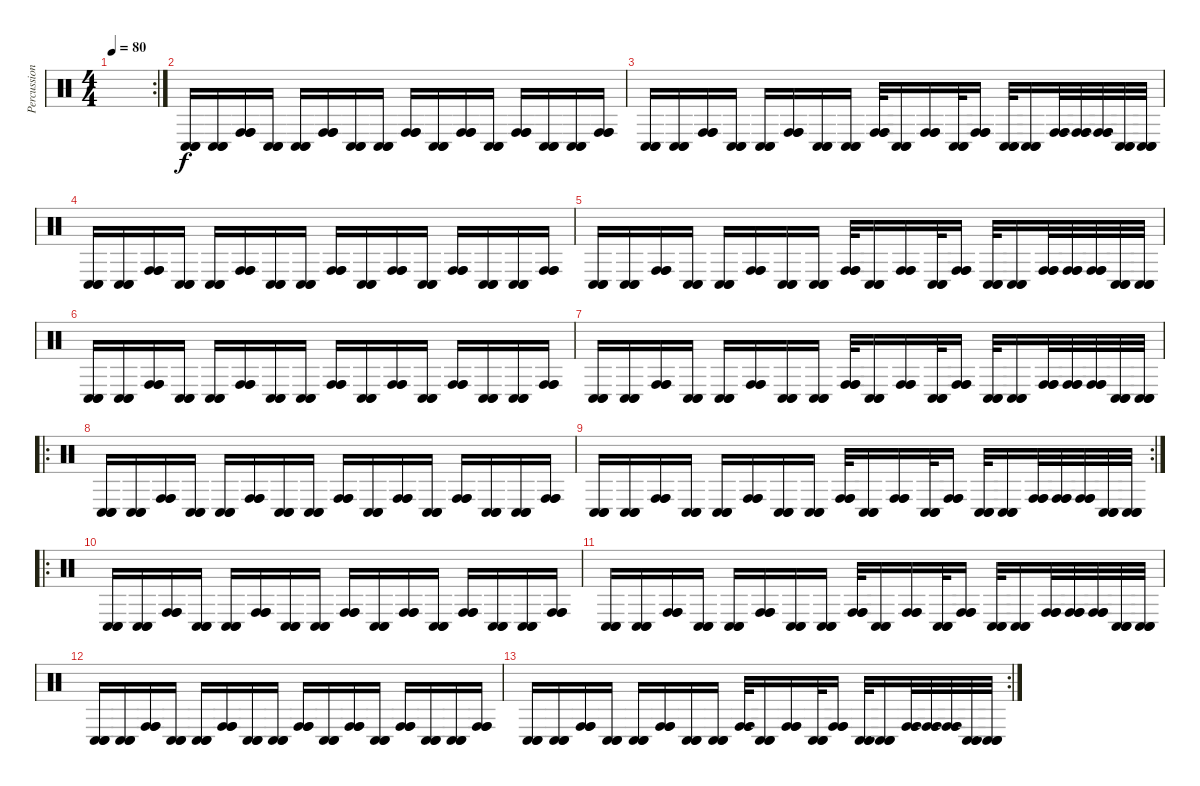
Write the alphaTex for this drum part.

\track ("Percussion" "Percussion") {instrument percussion}
\staff {score}
\articulation defaults
\rc 2
\ts (4 4)
\tempo 80
\clef neutral
\ks c
|
("Conga low (hit)" "Conga low (hit)" "Conga low (hit)").16 ("Conga low (hit)" "Conga low (hit)" "Conga low (hit)").16 ("Conga high (hit)" "Conga high (hit)" "Conga high (hit)").16 ("Conga low (hit)" "Conga low (hit)" "Conga low (hit)").16 ("Conga low (hit)" "Conga low (hit)" "Conga low (hit)").16 ("Conga high (hit)" "Conga high (hit)" "Conga high (hit)").16 ("Conga low (hit)" "Conga low (hit)" "Conga low (hit)").16 ("Conga low (hit)" "Conga low (hit)" "Conga low (hit)").16 ("Conga high (hit)" "Conga high (hit)" "Conga high (hit)").16 ("Conga low (hit)" "Conga low (hit)" "Conga low (hit)").16 ("Conga high (hit)" "Conga high (hit)" "Conga high (hit)").16 ("Conga low (hit)" "Conga low (hit)" "Conga low (hit)").16 ("Conga high (hit)" "Conga high (hit)" "Conga high (hit)").16 ("Conga low (hit)" "Conga low (hit)" "Conga low (hit)").16 ("Conga low (hit)" "Conga low (hit)" "Conga low (hit)").16 ("Conga high (hit)" "Conga high (hit)" "Conga high (hit)").16 |
("Conga low (hit)" "Conga low (hit)" "Conga low (hit)").16 ("Conga low (hit)" "Conga low (hit)" "Conga low (hit)").16 ("Conga high (hit)" "Conga high (hit)" "Conga high (hit)").16 ("Conga low (hit)" "Conga low (hit)" "Conga low (hit)").16 ("Conga low (hit)" "Conga low (hit)" "Conga low (hit)").16 ("Conga high (hit)" "Conga high (hit)" "Conga high (hit)").16 ("Conga low (hit)" "Conga low (hit)" "Conga low (hit)").16 ("Conga low (hit)" "Conga low (hit)" "Conga low (hit)").16 ("Conga high (hit)" "Conga high (hit)" "Conga high (hit)").32 ("Conga low (hit)" "Conga low (hit)" "Conga low (hit)").16 ("Conga high (hit)" "Conga high (hit)" "Conga high (hit)").16 ("Conga low (hit)" "Conga low (hit)" "Conga low (hit)").32 ("Conga high (hit)" "Conga high (hit)" "Conga high (hit)").16 ("Conga low (hit)" "Conga low (hit)" "Conga low (hit)").32 ("Conga low (hit)" "Conga low (hit)" "Conga low (hit)").16 ("Conga high (hit)" "Conga high (hit)" "Conga high (hit)").32 ("Conga high (hit)" "Conga high (hit)" "Conga high (hit)").32 ("Conga high (hit)" "Conga high (hit)" "Conga high (hit)").32 ("Conga low (hit)" "Conga low (hit)" "Conga low (hit)").32 ("Conga low (hit)" "Conga low (hit)" "Conga low (hit)").32 |
("Conga low (hit)" "Conga low (hit)" "Conga low (hit)").16 ("Conga low (hit)" "Conga low (hit)" "Conga low (hit)").16 ("Conga high (hit)" "Conga high (hit)" "Conga high (hit)").16 ("Conga low (hit)" "Conga low (hit)" "Conga low (hit)").16 ("Conga low (hit)" "Conga low (hit)" "Conga low (hit)").16 ("Conga high (hit)" "Conga high (hit)" "Conga high (hit)").16 ("Conga low (hit)" "Conga low (hit)" "Conga low (hit)").16 ("Conga low (hit)" "Conga low (hit)" "Conga low (hit)").16 ("Conga high (hit)" "Conga high (hit)" "Conga high (hit)").16 ("Conga low (hit)" "Conga low (hit)" "Conga low (hit)").16 ("Conga high (hit)" "Conga high (hit)" "Conga high (hit)").16 ("Conga low (hit)" "Conga low (hit)" "Conga low (hit)").16 ("Conga high (hit)" "Conga high (hit)" "Conga high (hit)").16 ("Conga low (hit)" "Conga low (hit)" "Conga low (hit)").16 ("Conga low (hit)" "Conga low (hit)" "Conga low (hit)").16 ("Conga high (hit)" "Conga high (hit)" "Conga high (hit)").16 |
("Conga low (hit)" "Conga low (hit)" "Conga low (hit)").16 ("Conga low (hit)" "Conga low (hit)" "Conga low (hit)").16 ("Conga high (hit)" "Conga high (hit)" "Conga high (hit)").16 ("Conga low (hit)" "Conga low (hit)" "Conga low (hit)").16 ("Conga low (hit)" "Conga low (hit)" "Conga low (hit)").16 ("Conga high (hit)" "Conga high (hit)" "Conga high (hit)").16 ("Conga low (hit)" "Conga low (hit)" "Conga low (hit)").16 ("Conga low (hit)" "Conga low (hit)" "Conga low (hit)").16 ("Conga high (hit)" "Conga high (hit)" "Conga high (hit)").32 ("Conga low (hit)" "Conga low (hit)" "Conga low (hit)").16 ("Conga high (hit)" "Conga high (hit)" "Conga high (hit)").16 ("Conga low (hit)" "Conga low (hit)" "Conga low (hit)").32 ("Conga high (hit)" "Conga high (hit)" "Conga high (hit)").16 ("Conga low (hit)" "Conga low (hit)" "Conga low (hit)").32 ("Conga low (hit)" "Conga low (hit)" "Conga low (hit)").16 ("Conga high (hit)" "Conga high (hit)" "Conga high (hit)").32 ("Conga high (hit)" "Conga high (hit)" "Conga high (hit)").32 ("Conga high (hit)" "Conga high (hit)" "Conga high (hit)").32 ("Conga low (hit)" "Conga low (hit)" "Conga low (hit)").32 ("Conga low (hit)" "Conga low (hit)" "Conga low (hit)").32 |
("Conga low (hit)" "Conga low (hit)" "Conga low (hit)").16 ("Conga low (hit)" "Conga low (hit)" "Conga low (hit)").16 ("Conga high (hit)" "Conga high (hit)" "Conga high (hit)").16 ("Conga low (hit)" "Conga low (hit)" "Conga low (hit)").16 ("Conga low (hit)" "Conga low (hit)" "Conga low (hit)").16 ("Conga high (hit)" "Conga high (hit)" "Conga high (hit)").16 ("Conga low (hit)" "Conga low (hit)" "Conga low (hit)").16 ("Conga low (hit)" "Conga low (hit)" "Conga low (hit)").16 ("Conga high (hit)" "Conga high (hit)" "Conga high (hit)").16 ("Conga low (hit)" "Conga low (hit)" "Conga low (hit)").16 ("Conga high (hit)" "Conga high (hit)" "Conga high (hit)").16 ("Conga low (hit)" "Conga low (hit)" "Conga low (hit)").16 ("Conga high (hit)" "Conga high (hit)" "Conga high (hit)").16 ("Conga low (hit)" "Conga low (hit)" "Conga low (hit)").16 ("Conga low (hit)" "Conga low (hit)" "Conga low (hit)").16 ("Conga high (hit)" "Conga high (hit)" "Conga high (hit)").16 |
("Conga low (hit)" "Conga low (hit)" "Conga low (hit)").16 ("Conga low (hit)" "Conga low (hit)" "Conga low (hit)").16 ("Conga high (hit)" "Conga high (hit)" "Conga high (hit)").16 ("Conga low (hit)" "Conga low (hit)" "Conga low (hit)").16 ("Conga low (hit)" "Conga low (hit)" "Conga low (hit)").16 ("Conga high (hit)" "Conga high (hit)" "Conga high (hit)").16 ("Conga low (hit)" "Conga low (hit)" "Conga low (hit)").16 ("Conga low (hit)" "Conga low (hit)" "Conga low (hit)").16 ("Conga high (hit)" "Conga high (hit)" "Conga high (hit)").32 ("Conga low (hit)" "Conga low (hit)" "Conga low (hit)").16 ("Conga high (hit)" "Conga high (hit)" "Conga high (hit)").16 ("Conga low (hit)" "Conga low (hit)" "Conga low (hit)").32 ("Conga high (hit)" "Conga high (hit)" "Conga high (hit)").16 ("Conga low (hit)" "Conga low (hit)" "Conga low (hit)").32 ("Conga low (hit)" "Conga low (hit)" "Conga low (hit)").16 ("Conga high (hit)" "Conga high (hit)" "Conga high (hit)").32 ("Conga high (hit)" "Conga high (hit)" "Conga high (hit)").32 ("Conga high (hit)" "Conga high (hit)" "Conga high (hit)").32 ("Conga low (hit)" "Conga low (hit)" "Conga low (hit)").32 ("Conga low (hit)" "Conga low (hit)" "Conga low (hit)").32 |
\ro
("Conga low (hit)" "Conga low (hit)" "Conga low (hit)").16 ("Conga low (hit)" "Conga low (hit)" "Conga low (hit)").16 ("Conga high (hit)" "Conga high (hit)" "Conga high (hit)").16 ("Conga low (hit)" "Conga low (hit)" "Conga low (hit)").16 ("Conga low (hit)" "Conga low (hit)" "Conga low (hit)").16 ("Conga high (hit)" "Conga high (hit)" "Conga high (hit)").16 ("Conga low (hit)" "Conga low (hit)" "Conga low (hit)").16 ("Conga low (hit)" "Conga low (hit)" "Conga low (hit)").16 ("Conga high (hit)" "Conga high (hit)" "Conga high (hit)").16 ("Conga low (hit)" "Conga low (hit)" "Conga low (hit)").16 ("Conga high (hit)" "Conga high (hit)" "Conga high (hit)").16 ("Conga low (hit)" "Conga low (hit)" "Conga low (hit)").16 ("Conga high (hit)" "Conga high (hit)" "Conga high (hit)").16 ("Conga low (hit)" "Conga low (hit)" "Conga low (hit)").16 ("Conga low (hit)" "Conga low (hit)" "Conga low (hit)").16 ("Conga high (hit)" "Conga high (hit)" "Conga high (hit)").16 |
\rc 2
("Conga low (hit)" "Conga low (hit)" "Conga low (hit)").16 ("Conga low (hit)" "Conga low (hit)" "Conga low (hit)").16 ("Conga high (hit)" "Conga high (hit)" "Conga high (hit)").16 ("Conga low (hit)" "Conga low (hit)" "Conga low (hit)").16 ("Conga low (hit)" "Conga low (hit)" "Conga low (hit)").16 ("Conga high (hit)" "Conga high (hit)" "Conga high (hit)").16 ("Conga low (hit)" "Conga low (hit)" "Conga low (hit)").16 ("Conga low (hit)" "Conga low (hit)" "Conga low (hit)").16 ("Conga high (hit)" "Conga high (hit)" "Conga high (hit)").32 ("Conga low (hit)" "Conga low (hit)" "Conga low (hit)").16 ("Conga high (hit)" "Conga high (hit)" "Conga high (hit)").16 ("Conga low (hit)" "Conga low (hit)" "Conga low (hit)").32 ("Conga high (hit)" "Conga high (hit)" "Conga high (hit)").16 ("Conga low (hit)" "Conga low (hit)" "Conga low (hit)").32 ("Conga low (hit)" "Conga low (hit)" "Conga low (hit)").16 ("Conga high (hit)" "Conga high (hit)" "Conga high (hit)").32 ("Conga high (hit)" "Conga high (hit)" "Conga high (hit)").32 ("Conga high (hit)" "Conga high (hit)" "Conga high (hit)").32 ("Conga low (hit)" "Conga low (hit)" "Conga low (hit)").32 ("Conga low (hit)" "Conga low (hit)" "Conga low (hit)").32 |
\ro
("Conga low (hit)" "Conga low (hit)" "Conga low (hit)").16 ("Conga low (hit)" "Conga low (hit)" "Conga low (hit)").16 ("Conga high (hit)" "Conga high (hit)" "Conga high (hit)").16 ("Conga low (hit)" "Conga low (hit)" "Conga low (hit)").16 ("Conga low (hit)" "Conga low (hit)" "Conga low (hit)").16 ("Conga high (hit)" "Conga high (hit)" "Conga high (hit)").16 ("Conga low (hit)" "Conga low (hit)" "Conga low (hit)").16 ("Conga low (hit)" "Conga low (hit)" "Conga low (hit)").16 ("Conga high (hit)" "Conga high (hit)" "Conga high (hit)").16 ("Conga low (hit)" "Conga low (hit)" "Conga low (hit)").16 ("Conga high (hit)" "Conga high (hit)" "Conga high (hit)").16 ("Conga low (hit)" "Conga low (hit)" "Conga low (hit)").16 ("Conga high (hit)" "Conga high (hit)" "Conga high (hit)").16 ("Conga low (hit)" "Conga low (hit)" "Conga low (hit)").16 ("Conga low (hit)" "Conga low (hit)" "Conga low (hit)").16 ("Conga high (hit)" "Conga high (hit)" "Conga high (hit)").16 |
("Conga low (hit)" "Conga low (hit)" "Conga low (hit)").16 ("Conga low (hit)" "Conga low (hit)" "Conga low (hit)").16 ("Conga high (hit)" "Conga high (hit)" "Conga high (hit)").16 ("Conga low (hit)" "Conga low (hit)" "Conga low (hit)").16 ("Conga low (hit)" "Conga low (hit)" "Conga low (hit)").16 ("Conga high (hit)" "Conga high (hit)" "Conga high (hit)").16 ("Conga low (hit)" "Conga low (hit)" "Conga low (hit)").16 ("Conga low (hit)" "Conga low (hit)" "Conga low (hit)").16 ("Conga high (hit)" "Conga high (hit)" "Conga high (hit)").32 ("Conga low (hit)" "Conga low (hit)" "Conga low (hit)").16 ("Conga high (hit)" "Conga high (hit)" "Conga high (hit)").16 ("Conga low (hit)" "Conga low (hit)" "Conga low (hit)").32 ("Conga high (hit)" "Conga high (hit)" "Conga high (hit)").16 ("Conga low (hit)" "Conga low (hit)" "Conga low (hit)").32 ("Conga low (hit)" "Conga low (hit)" "Conga low (hit)").16 ("Conga high (hit)" "Conga high (hit)" "Conga high (hit)").32 ("Conga high (hit)" "Conga high (hit)" "Conga high (hit)").32 ("Conga high (hit)" "Conga high (hit)" "Conga high (hit)").32 ("Conga low (hit)" "Conga low (hit)" "Conga low (hit)").32 ("Conga low (hit)" "Conga low (hit)" "Conga low (hit)").32 |
("Conga low (hit)" "Conga low (hit)" "Conga low (hit)").16 ("Conga low (hit)" "Conga low (hit)" "Conga low (hit)").16 ("Conga high (hit)" "Conga high (hit)" "Conga high (hit)").16 ("Conga low (hit)" "Conga low (hit)" "Conga low (hit)").16 ("Conga low (hit)" "Conga low (hit)" "Conga low (hit)").16 ("Conga high (hit)" "Conga high (hit)" "Conga high (hit)").16 ("Conga low (hit)" "Conga low (hit)" "Conga low (hit)").16 ("Conga low (hit)" "Conga low (hit)" "Conga low (hit)").16 ("Conga high (hit)" "Conga high (hit)" "Conga high (hit)").16 ("Conga low (hit)" "Conga low (hit)" "Conga low (hit)").16 ("Conga high (hit)" "Conga high (hit)" "Conga high (hit)").16 ("Conga low (hit)" "Conga low (hit)" "Conga low (hit)").16 ("Conga high (hit)" "Conga high (hit)" "Conga high (hit)").16 ("Conga low (hit)" "Conga low (hit)" "Conga low (hit)").16 ("Conga low (hit)" "Conga low (hit)" "Conga low (hit)").16 ("Conga high (hit)" "Conga high (hit)" "Conga high (hit)").16 |
\rc 2
("Conga low (hit)" "Conga low (hit)" "Conga low (hit)").16 ("Conga low (hit)" "Conga low (hit)" "Conga low (hit)").16 ("Conga high (hit)" "Conga high (hit)" "Conga high (hit)").16 ("Conga low (hit)" "Conga low (hit)" "Conga low (hit)").16 ("Conga low (hit)" "Conga low (hit)" "Conga low (hit)").16 ("Conga high (hit)" "Conga high (hit)" "Conga high (hit)").16 ("Conga low (hit)" "Conga low (hit)" "Conga low (hit)").16 ("Conga low (hit)" "Conga low (hit)" "Conga low (hit)").16 ("Conga high (hit)" "Conga high (hit)" "Conga high (hit)").32 ("Conga low (hit)" "Conga low (hit)" "Conga low (hit)").16 ("Conga high (hit)" "Conga high (hit)" "Conga high (hit)").16 ("Conga low (hit)" "Conga low (hit)" "Conga low (hit)").32 ("Conga high (hit)" "Conga high (hit)" "Conga high (hit)").16 ("Conga low (hit)" "Conga low (hit)" "Conga low (hit)").32 ("Conga low (hit)" "Conga low (hit)" "Conga low (hit)").16 ("Conga high (hit)" "Conga high (hit)" "Conga high (hit)").32 ("Conga high (hit)" "Conga high (hit)" "Conga high (hit)").32 ("Conga high (hit)" "Conga high (hit)" "Conga high (hit)").32 ("Conga low (hit)" "Conga low (hit)" "Conga low (hit)").32 ("Conga low (hit)" "Conga low (hit)" "Conga low (hit)").32
